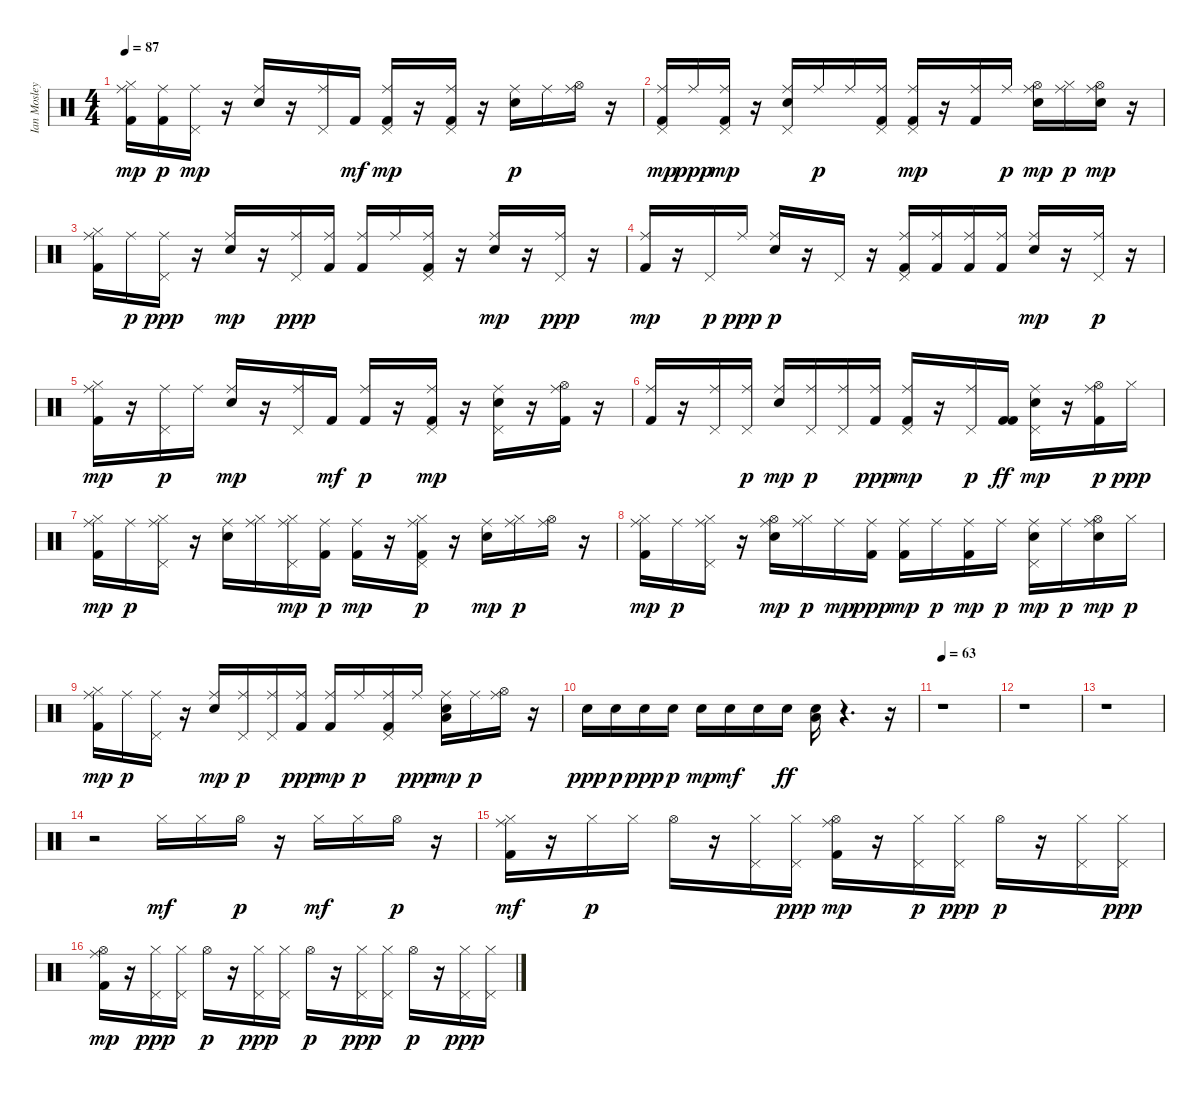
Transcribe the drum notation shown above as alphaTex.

\track ("Ian Mosley" "Ian Mosley") {instrument percussion}
\staff {score}
\articulation defaults
\ts (4 4)
\tempo 87
\clef neutral
\ks c
("Hi-Hat (closed)" "Kick (hit) 2" "Ride (middle)").16{dy mp} ("Kick (hit) 2" "Ride (middle)").16{dy p} ("Pedal Hi-Hat (hit)" "Ride (middle)").16{dy mp} r.16 ("Snare (hit) 2" "Ride (middle)").16 r.16 ("Pedal Hi-Hat (hit)" "Ride (middle)").16 "Kick (hit) 2".16{dy mf} ("Kick (hit) 2" "Pedal Hi-Hat (hit)" "Ride (middle)").16{dy mp} r.16 ("Kick (hit) 2" "Pedal Hi-Hat (hit)" "Ride (middle)").16 r.16 ("Snare (hit) 2" "Ride (middle)").16{dy p} "Ride (middle)".16 ("Hi-Hat (open)" "Ride (middle)").16 r.16 |
("Kick (hit) 2" "Pedal Hi-Hat (hit)" "Ride (middle)").16{dy mp} "Ride (middle)".16{dy ppp} ("Kick (hit) 2" "Pedal Hi-Hat (hit)" "Ride (middle)").16{dy mp} r.16 ("Snare (hit) 2" "Pedal Hi-Hat (hit)" "Ride (middle)").16 "Ride (middle)".16{dy p} "Ride (middle)".16 ("Kick (hit) 2" "Pedal Hi-Hat (hit)" "Ride (middle)").16 ("Kick (hit) 2" "Pedal Hi-Hat (hit)" "Ride (middle)").16{dy mp} r.16 ("Kick (hit) 2" "Ride (middle)").16 "Ride (middle)".16{dy p} ("Snare (hit) 2" "Hi-Hat (open)" "Ride (middle)").16{dy mp} ("Hi-Hat (closed)" "Ride (middle)").16{dy p} ("Snare (hit) 2" "Hi-Hat (open)" "Ride (middle)").16{dy mp} r.16 |
("Kick (hit) 2" "Hi-Hat (closed)" "Ride (middle)").16 "Ride (middle)".16{dy p} ("Pedal Hi-Hat (hit)" "Ride (middle)").16{dy ppp} r.16 ("Snare (hit) 2" "Ride (middle)").16{dy mp} r.16 ("Pedal Hi-Hat (hit)" "Ride (middle)").16{dy ppp} ("Kick (hit) 2" "Ride (middle)").16 ("Kick (hit) 2" "Ride (middle)").16 "Ride (middle)".16 ("Kick (hit) 2" "Pedal Hi-Hat (hit)" "Ride (middle)").16 r.16 ("Snare (hit) 2" "Ride (middle)").16{dy mp} r.16 ("Pedal Hi-Hat (hit)" "Ride (middle)").16{dy ppp} r.16 |
("Kick (hit) 2" "Ride (middle)").16{dy mp} r.16 "Pedal Hi-Hat (hit)".16{dy p} "Ride (middle)".16{dy ppp} ("Snare (hit) 2" "Ride (middle)").16{dy p} r.16 "Pedal Hi-Hat (hit)".16 r.16 ("Kick (hit) 2" "Pedal Hi-Hat (hit)" "Ride (middle)").16 ("Kick (hit) 2" "Ride (middle)").16 ("Kick (hit) 2" "Ride (middle)").16 ("Kick (hit) 2" "Ride (middle)").16 ("Snare (hit) 2" "Ride (middle)").16{dy mp} r.16 ("Pedal Hi-Hat (hit)" "Ride (middle)").16{dy p} r.16 |
("Kick (hit) 2" "Hi-Hat (closed)" "Ride (middle)").16{dy mp} r.16 ("Pedal Hi-Hat (hit)" "Ride (middle)").16{dy p} "Ride (middle)".16 ("Snare (hit) 2" "Ride (middle)").16{dy mp} r.16 ("Pedal Hi-Hat (hit)" "Ride (middle)").16 "Kick (hit) 2".16{dy mf} ("Kick (hit) 2" "Ride (middle)").16{dy p} r.16 ("Kick (hit) 2" "Pedal Hi-Hat (hit)" "Ride (middle)").16{dy mp} r.16 ("Snare (hit) 2" "Pedal Hi-Hat (hit)" "Ride (middle)").16 r.16 ("Kick (hit) 2" "Hi-Hat (open)" "Ride (middle)").16 r.16 |
("Kick (hit) 2" "Ride (middle)").16 r.16 ("Pedal Hi-Hat (hit)" "Ride (middle)").16 ("Pedal Hi-Hat (hit)" "Ride (middle)").16{dy p} ("Snare (hit) 2" "Ride (middle)").16{dy mp} ("Pedal Hi-Hat (hit)" "Ride (middle)").16{dy p} ("Pedal Hi-Hat (hit)" "Ride (middle)").16 ("Kick (hit) 2" "Ride (middle)").16{dy ppp} ("Kick (hit) 2" "Pedal Hi-Hat (hit)" "Ride (middle)").16{dy mp} r.16 ("Pedal Hi-Hat (hit)" "Ride (middle)").16{dy p} ("Kick (hit) 2" "Kick (hit) 2").16{dy ff} ("Snare (hit) 2" "Pedal Hi-Hat (hit)" "Ride (middle)").16{dy mp} r.16 ("Hi-Hat (open)" "Kick (hit) 2" "Ride (middle)").16{dy p} "Hi-Hat (closed)".16{dy ppp} |
("Kick (hit) 2" "Hi-Hat (closed)" "Ride (middle)").16{dy mp} "Ride (middle)".16{dy p} ("Hi-Hat (closed)" "Pedal Hi-Hat (hit)" "Ride (middle)").16 r.16 ("Snare (hit) 2" "Ride (middle)").16 ("Hi-Hat (closed)" "Ride (middle)").16 ("Hi-Hat (closed)" "Pedal Hi-Hat (hit)" "Ride (middle)").16{dy mp} ("Kick (hit) 2" "Ride (middle)").16{dy p} ("Kick (hit) 2" "Ride (middle)").16{dy mp} r.16 ("Kick (hit) 2" "Hi-Hat (closed)" "Pedal Hi-Hat (hit)" "Ride (middle)").16{dy p} r.16 ("Snare (hit) 2" "Ride (middle)").16{dy mp} ("Hi-Hat (closed)" "Ride (middle)").16{dy p} ("Hi-Hat (open)" "Ride (middle)").16 r.16 |
("Kick (hit) 2" "Hi-Hat (closed)" "Ride (middle)").16{dy mp} "Ride (middle)".16{dy p} ("Pedal Hi-Hat (hit)" "Hi-Hat (closed)" "Ride (middle)").16 r.16 ("Snare (hit) 2" "Hi-Hat (open)" "Ride (middle)").16{dy mp} ("Hi-Hat (closed)" "Ride (middle)").16{dy p} "Ride (middle)".16{dy mp} ("Kick (hit) 2" "Ride (middle)").16{dy ppp} ("Kick (hit) 2" "Ride (middle)").16{dy mp} "Ride (middle)".16{dy p} ("Kick (hit) 2" "Ride (middle)").16{dy mp} "Ride (middle)".16{dy p} ("Snare (hit) 2" "Pedal Hi-Hat (hit)" "Ride (middle)").16{dy mp} "Ride (middle)".16{dy p} ("Snare (hit) 2" "Hi-Hat (open)" "Ride (middle)").16{dy mp} "Hi-Hat (closed)".16{dy p} |
("Kick (hit) 2" "Hi-Hat (closed)" "Ride (middle)").16{dy mp} "Ride (middle)".16{dy p} ("Pedal Hi-Hat (hit)" "Ride (middle)").16 r.16 ("Snare (hit) 2" "Ride (middle)").16{dy mp} ("Pedal Hi-Hat (hit)" "Ride (middle)").16{dy p} ("Pedal Hi-Hat (hit)" "Ride (middle)").16 ("Kick (hit) 2" "Ride (middle)").16{dy ppp} ("Kick (hit) 2" "Ride (middle)").16{dy mp} "Ride (middle)".16{dy p} ("Kick (hit) 2" "Pedal Hi-Hat (hit)" "Ride (middle)").16 "Ride (middle)".16{dy ppp} ("Snare (hit) 2" "Low Tom (hit)" "Ride (middle)").16{dy mp} "Ride (middle)".16{dy p} ("Hi-Hat (open)" "Ride (middle)").16 r.16 |
"Snare (hit) 2".16{dy ppp} "Snare (hit) 2".16{dy p} "Snare (hit) 2".16{dy ppp} "Snare (hit) 2".16{dy p} "Snare (hit) 2".16{dy mp} "Snare (hit) 2".16{dy mf} "Snare (hit) 2".16 "Snare (hit) 2".16{dy ff} ("Snare (hit) 2" "Low Floor Tom (hit)").16 r.4{d} r.16 |
\tempo 63
r.1 |
r.1 |
r.1 |
r.2 "Hi-Hat (closed)".16{dy mf} "Hi-Hat (closed)".16 "Hi-Hat (open)".16{dy p} r.16 "Hi-Hat (closed)".16{dy mf} "Hi-Hat (closed)".16 "Hi-Hat (open)".16{dy p} r.16 |
("Kick (hit) 2" "Hi-Hat (closed)" "Ride (middle)").16{dy mf} r.16 "Hi-Hat (closed)".16{dy p} "Hi-Hat (closed)".16 "Hi-Hat (open)".16 r.16 ("Hi-Hat (closed)" "Pedal Hi-Hat (hit)").16 ("Hi-Hat (closed)" "Pedal Hi-Hat (hit)").16{dy ppp} ("Kick (hit) 2" "Hi-Hat (open)" "Ride (middle)").16{dy mp} r.16 ("Hi-Hat (closed)" "Pedal Hi-Hat (hit)").16{dy p} ("Hi-Hat (closed)" "Pedal Hi-Hat (hit)").16{dy ppp} "Hi-Hat (open)".16{dy p} r.16 ("Hi-Hat (closed)" "Pedal Hi-Hat (hit)").16 ("Hi-Hat (closed)" "Pedal Hi-Hat (hit)").16{dy ppp} |
("Kick (hit) 2" "Hi-Hat (open)" "Ride (middle)").16{dy mp} r.16 ("Hi-Hat (closed)" "Pedal Hi-Hat (hit)").16{dy ppp} ("Hi-Hat (closed)" "Pedal Hi-Hat (hit)").16 "Hi-Hat (open)".16{dy p} r.16 ("Hi-Hat (closed)" "Pedal Hi-Hat (hit)").16{dy ppp} ("Hi-Hat (closed)" "Pedal Hi-Hat (hit)").16 "Hi-Hat (open)".16{dy p} r.16 ("Hi-Hat (closed)" "Pedal Hi-Hat (hit)").16{dy ppp} ("Hi-Hat (closed)" "Pedal Hi-Hat (hit)").16 "Hi-Hat (open)".16{dy p} r.16 ("Hi-Hat (closed)" "Pedal Hi-Hat (hit)").16{dy ppp} ("Hi-Hat (closed)" "Pedal Hi-Hat (hit)").16
